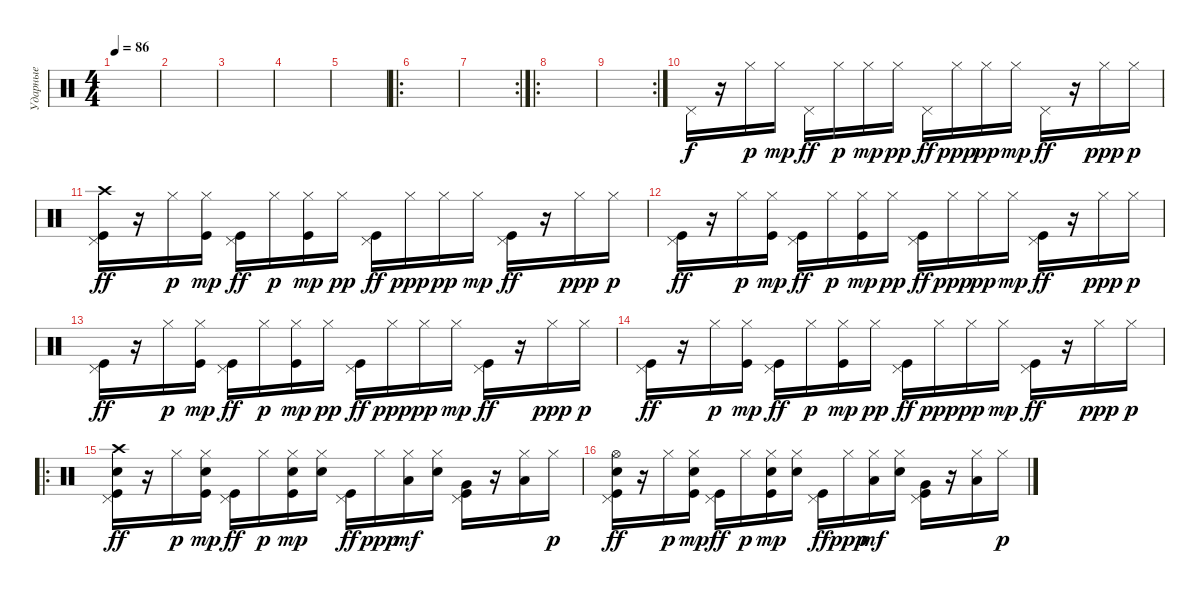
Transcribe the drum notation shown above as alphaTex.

\track ("Ударные" "Ударные") {instrument percussion}
\staff {score}
\articulation defaults
\ts (4 4)
\tempo 86
\clef neutral
\ks c
|
|
|
|
|
\ro
|
\rc 2
|
\ro
|
\rc 2
|
"Pedal Hi-Hat (hit)".16 r.16 "Hi-Hat (closed)".16{dy p} "Hi-Hat (closed)".16{dy mp} "Pedal Hi-Hat (hit)".16{dy ff} "Hi-Hat (closed)".16{dy p} "Hi-Hat (closed)".16{dy mp} "Hi-Hat (closed)".16{dy pp} "Pedal Hi-Hat (hit)".16{dy ff} "Hi-Hat (closed)".16{dy ppp} "Hi-Hat (closed)".16{dy pp} "Hi-Hat (closed)".16{dy mp} "Pedal Hi-Hat (hit)".16{dy ff} r.16 "Hi-Hat (closed)".16{dy ppp} "Hi-Hat (closed)".16{dy p} |
("Pedal Hi-Hat (hit)" "Crash high (hit)" "Kick (hit)").16{dy ff} r.16 "Hi-Hat (closed)".16{dy p} ("Hi-Hat (closed)" "Kick (hit)").16{dy mp} ("Pedal Hi-Hat (hit)" "Kick (hit)").16{dy ff} "Hi-Hat (closed)".16{dy p} ("Hi-Hat (closed)" "Kick (hit)").16{dy mp} "Hi-Hat (closed)".16{dy pp} ("Pedal Hi-Hat (hit)" "Kick (hit)").16{dy ff} "Hi-Hat (closed)".16{dy ppp} "Hi-Hat (closed)".16{dy pp} "Hi-Hat (closed)".16{dy mp} ("Pedal Hi-Hat (hit)" "Kick (hit)").16{dy ff} r.16 "Hi-Hat (closed)".16{dy ppp} "Hi-Hat (closed)".16{dy p} |
("Pedal Hi-Hat (hit)" "Kick (hit)").16{dy ff} r.16 "Hi-Hat (closed)".16{dy p} ("Hi-Hat (closed)" "Kick (hit)").16{dy mp} ("Pedal Hi-Hat (hit)" "Kick (hit)").16{dy ff} "Hi-Hat (closed)".16{dy p} ("Hi-Hat (closed)" "Kick (hit)").16{dy mp} "Hi-Hat (closed)".16{dy pp} ("Pedal Hi-Hat (hit)" "Kick (hit)").16{dy ff} "Hi-Hat (closed)".16{dy ppp} "Hi-Hat (closed)".16{dy pp} "Hi-Hat (closed)".16{dy mp} ("Pedal Hi-Hat (hit)" "Kick (hit)").16{dy ff} r.16 "Hi-Hat (closed)".16{dy ppp} "Hi-Hat (closed)".16{dy p} |
("Pedal Hi-Hat (hit)" "Kick (hit)").16{dy ff} r.16 "Hi-Hat (closed)".16{dy p} ("Hi-Hat (closed)" "Kick (hit)").16{dy mp} ("Pedal Hi-Hat (hit)" "Kick (hit)").16{dy ff} "Hi-Hat (closed)".16{dy p} ("Hi-Hat (closed)" "Kick (hit)").16{dy mp} "Hi-Hat (closed)".16{dy pp} ("Pedal Hi-Hat (hit)" "Kick (hit)").16{dy ff} "Hi-Hat (closed)".16{dy ppp} "Hi-Hat (closed)".16{dy pp} "Hi-Hat (closed)".16{dy mp} ("Pedal Hi-Hat (hit)" "Kick (hit)").16{dy ff} r.16 "Hi-Hat (closed)".16{dy ppp} "Hi-Hat (closed)".16{dy p} |
("Pedal Hi-Hat (hit)" "Kick (hit)").16{dy ff} r.16 "Hi-Hat (closed)".16{dy p} ("Hi-Hat (closed)" "Kick (hit)").16{dy mp} ("Pedal Hi-Hat (hit)" "Kick (hit)").16{dy ff} "Hi-Hat (closed)".16{dy p} ("Hi-Hat (closed)" "Kick (hit)").16{dy mp} "Hi-Hat (closed)".16{dy pp} ("Pedal Hi-Hat (hit)" "Kick (hit)").16{dy ff} "Hi-Hat (closed)".16{dy ppp} "Hi-Hat (closed)".16{dy pp} "Hi-Hat (closed)".16{dy mp} ("Pedal Hi-Hat (hit)" "Kick (hit)").16{dy ff} r.16 "Hi-Hat (closed)".16{dy ppp} "Hi-Hat (closed)".16{dy p} |
\ro
("Pedal Hi-Hat (hit)" "Crash high (hit)" "Electric Snare (hit)" "Kick (hit)").16{dy ff} r.16 "Hi-Hat (closed)".16{dy p} ("Hi-Hat (closed)" "Electric Snare (hit)" "Kick (hit)").16{dy mp} ("Pedal Hi-Hat (hit)" "Kick (hit)").16{dy ff} "Hi-Hat (closed)".16{dy p} ("Hi-Hat (closed)" "Snare (hit) 2" "Kick (hit)").16{dy mp} ("Hi-Hat (closed)" "Snare (hit) 2").16 ("Pedal Hi-Hat (hit)" "Kick (hit)").16{dy ff} "Hi-Hat (closed)".16{dy ppp} ("Hi-Hat (closed)" "Low Tom (hit)").16{dy mf} ("Hi-Hat (closed)" "Electric Snare (hit)").16 ("Pedal Hi-Hat (hit)" "Very Low Tom (hit)" "Kick (hit)").16 r.16 ("Hi-Hat (closed)" "Low Floor Tom (hit)").16 "Hi-Hat (closed)".16{dy p} |
("Pedal Hi-Hat (hit)" "Hi-Hat (open)" "Electric Snare (hit)" "Kick (hit)").16{dy ff} r.16 "Hi-Hat (closed)".16{dy p} ("Hi-Hat (closed)" "Electric Snare (hit)" "Kick (hit)").16{dy mp} ("Pedal Hi-Hat (hit)" "Kick (hit)").16{dy ff} "Hi-Hat (closed)".16{dy p} ("Hi-Hat (closed)" "Snare (hit) 2" "Kick (hit)").16{dy mp} ("Hi-Hat (closed)" "Snare (hit) 2").16 ("Pedal Hi-Hat (hit)" "Kick (hit)").16{dy ff} "Hi-Hat (closed)".16{dy ppp} ("Hi-Hat (closed)" "Low Tom (hit)").16{dy mf} ("Hi-Hat (closed)" "Electric Snare (hit)").16 ("Pedal Hi-Hat (hit)" "Very Low Tom (hit)" "Kick (hit)").16 r.16 ("Hi-Hat (closed)" "Low Floor Tom (hit)").16 "Hi-Hat (closed)".16{dy p}
